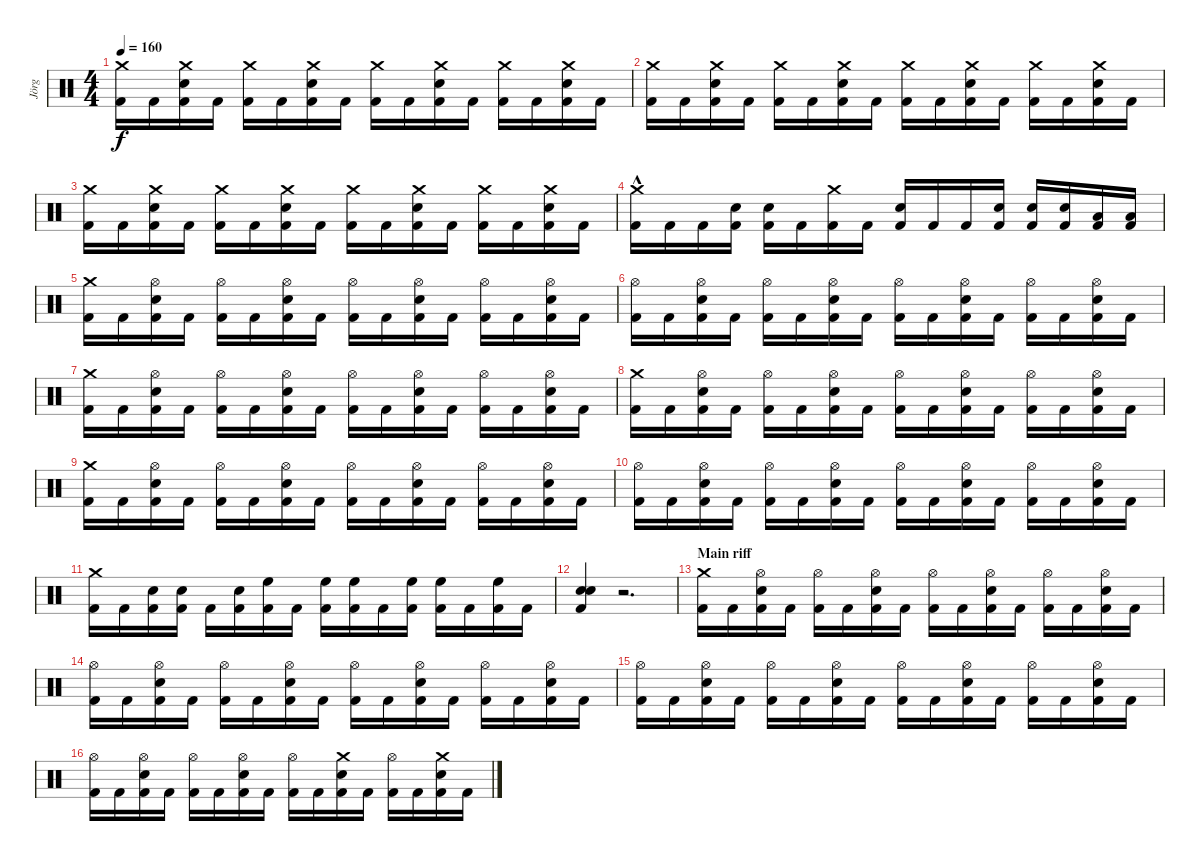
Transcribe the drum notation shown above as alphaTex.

\track ("Jörg" "Jörg") {instrument percussion}
\staff {score}
\articulation defaults
\ts (4 4)
\tempo 160
\clef neutral
\ks c
("Crash medium (hit)" "Kick (hit) 2").16{dy f} "Kick (hit) 2".16 ("Crash medium (hit)" "Snare (hit) 2" "Kick (hit) 2").16 "Kick (hit) 2".16 ("Crash medium (hit)" "Kick (hit) 2").16 "Kick (hit) 2".16 ("Crash medium (hit)" "Snare (hit) 2" "Kick (hit) 2").16 "Kick (hit) 2".16 ("Crash medium (hit)" "Kick (hit) 2").16 "Kick (hit) 2".16 ("Crash medium (hit)" "Snare (hit) 2" "Kick (hit) 2").16 "Kick (hit) 2".16 ("Crash medium (hit)" "Kick (hit) 2").16 "Kick (hit) 2".16 ("Crash medium (hit)" "Snare (hit) 2" "Kick (hit) 2").16 "Kick (hit) 2".16 |
("Crash medium (hit)" "Kick (hit) 2").16 "Kick (hit) 2".16 ("Crash medium (hit)" "Snare (hit) 2" "Kick (hit) 2").16 "Kick (hit) 2".16 ("Crash medium (hit)" "Kick (hit) 2").16 "Kick (hit) 2".16 ("Crash medium (hit)" "Snare (hit) 2" "Kick (hit) 2").16 "Kick (hit) 2".16 ("Crash medium (hit)" "Kick (hit) 2").16 "Kick (hit) 2".16 ("Crash medium (hit)" "Snare (hit) 2" "Kick (hit) 2").16 "Kick (hit) 2".16 ("Crash medium (hit)" "Kick (hit) 2").16 "Kick (hit) 2".16 ("Crash medium (hit)" "Snare (hit) 2" "Kick (hit) 2").16 "Kick (hit) 2".16 |
("Crash medium (hit)" "Kick (hit) 2").16 "Kick (hit) 2".16 ("Crash medium (hit)" "Snare (hit) 2" "Kick (hit) 2").16 "Kick (hit) 2".16 ("Crash medium (hit)" "Kick (hit) 2").16 "Kick (hit) 2".16 ("Crash medium (hit)" "Snare (hit) 2" "Kick (hit) 2").16 "Kick (hit) 2".16 ("Crash medium (hit)" "Kick (hit) 2").16 "Kick (hit) 2".16 ("Crash medium (hit)" "Snare (hit) 2" "Kick (hit) 2").16 "Kick (hit) 2".16 ("Crash medium (hit)" "Kick (hit) 2").16 "Kick (hit) 2".16 ("Crash medium (hit)" "Snare (hit) 2" "Kick (hit) 2").16 "Kick (hit) 2".16 |
("Crash medium (hit)"{hac} "Kick (hit) 2").16 "Kick (hit) 2".16 "Kick (hit) 2".16 ("Snare (hit) 2" "Kick (hit) 2").16 ("Snare (hit) 2" "Kick (hit) 2").16 "Kick (hit) 2".16 ("Crash medium (hit)" "Kick (hit) 2").16 "Kick (hit) 2".16 ("Snare (hit) 2" "Kick (hit) 2").16 "Kick (hit) 2".16 "Kick (hit) 2".16 ("Snare (hit) 2" "Kick (hit) 2").16 ("Snare (hit) 2" "Kick (hit) 2").16 ("Snare (hit) 2" "Kick (hit) 2").16 ("Low Tom (hit)" "Kick (hit) 2").16 ("Low Tom (hit)" "Kick (hit) 2").16 |
("Crash medium (hit)" "Kick (hit) 2").16 "Kick (hit) 2".16 ("Hi-Hat (open)" "Snare (hit) 2" "Kick (hit) 2").16 "Kick (hit) 2".16 ("Hi-Hat (open)" "Kick (hit) 2").16 "Kick (hit) 2".16 ("Hi-Hat (open)" "Snare (hit) 2" "Kick (hit) 2").16 "Kick (hit) 2".16 ("Hi-Hat (open)" "Kick (hit) 2").16 "Kick (hit) 2".16 ("Hi-Hat (open)" "Snare (hit) 2" "Kick (hit) 2").16 "Kick (hit) 2".16 ("Hi-Hat (open)" "Kick (hit) 2").16 "Kick (hit) 2".16 ("Hi-Hat (open)" "Snare (hit) 2" "Kick (hit) 2").16 "Kick (hit) 2".16 |
("Hi-Hat (open)" "Kick (hit) 2").16 "Kick (hit) 2".16 ("Hi-Hat (open)" "Snare (hit) 2" "Kick (hit) 2").16 "Kick (hit) 2".16 ("Hi-Hat (open)" "Kick (hit) 2").16 "Kick (hit) 2".16 ("Hi-Hat (open)" "Snare (hit) 2" "Kick (hit) 2").16 "Kick (hit) 2".16 ("Hi-Hat (open)" "Kick (hit) 2").16 "Kick (hit) 2".16 ("Hi-Hat (open)" "Snare (hit) 2" "Kick (hit) 2").16 "Kick (hit) 2".16 ("Hi-Hat (open)" "Kick (hit) 2").16 "Kick (hit) 2".16 ("Hi-Hat (open)" "Snare (hit) 2" "Kick (hit) 2").16 "Kick (hit) 2".16 |
("Crash medium (hit)" "Kick (hit) 2").16 "Kick (hit) 2".16 ("Hi-Hat (open)" "Snare (hit) 2" "Kick (hit) 2").16 "Kick (hit) 2".16 ("Hi-Hat (open)" "Kick (hit) 2").16 "Kick (hit) 2".16 ("Hi-Hat (open)" "Snare (hit) 2" "Kick (hit) 2").16 "Kick (hit) 2".16 ("Hi-Hat (open)" "Kick (hit) 2").16 "Kick (hit) 2".16 ("Hi-Hat (open)" "Snare (hit) 2" "Kick (hit) 2").16 "Kick (hit) 2".16 ("Hi-Hat (open)" "Kick (hit) 2").16 "Kick (hit) 2".16 ("Hi-Hat (open)" "Snare (hit) 2" "Kick (hit) 2").16 "Kick (hit) 2".16 |
("Crash medium (hit)" "Kick (hit) 2").16 "Kick (hit) 2".16 ("Hi-Hat (open)" "Snare (hit) 2" "Kick (hit) 2").16 "Kick (hit) 2".16 ("Hi-Hat (open)" "Kick (hit) 2").16 "Kick (hit) 2".16 ("Hi-Hat (open)" "Snare (hit) 2" "Kick (hit) 2").16 "Kick (hit) 2".16 ("Hi-Hat (open)" "Kick (hit) 2").16 "Kick (hit) 2".16 ("Hi-Hat (open)" "Snare (hit) 2" "Kick (hit) 2").16 "Kick (hit) 2".16 ("Hi-Hat (open)" "Kick (hit) 2").16 "Kick (hit) 2".16 ("Hi-Hat (open)" "Snare (hit) 2" "Kick (hit) 2").16 "Kick (hit) 2".16 |
("Crash medium (hit)" "Kick (hit) 2").16 "Kick (hit) 2".16 ("Hi-Hat (open)" "Snare (hit) 2" "Kick (hit) 2").16 "Kick (hit) 2".16 ("Hi-Hat (open)" "Kick (hit) 2").16 "Kick (hit) 2".16 ("Hi-Hat (open)" "Snare (hit) 2" "Kick (hit) 2").16 "Kick (hit) 2".16 ("Hi-Hat (open)" "Kick (hit) 2").16 "Kick (hit) 2".16 ("Hi-Hat (open)" "Snare (hit) 2" "Kick (hit) 2").16 "Kick (hit) 2".16 ("Hi-Hat (open)" "Kick (hit) 2").16 "Kick (hit) 2".16 ("Hi-Hat (open)" "Snare (hit) 2" "Kick (hit) 2").16 "Kick (hit) 2".16 |
("Hi-Hat (open)" "Kick (hit) 2").16 "Kick (hit) 2".16 ("Hi-Hat (open)" "Snare (hit) 2" "Kick (hit) 2").16 "Kick (hit) 2".16 ("Hi-Hat (open)" "Kick (hit) 2").16 "Kick (hit) 2".16 ("Hi-Hat (open)" "Snare (hit) 2" "Kick (hit) 2").16 "Kick (hit) 2".16 ("Hi-Hat (open)" "Kick (hit) 2").16 "Kick (hit) 2".16 ("Hi-Hat (open)" "Snare (hit) 2" "Kick (hit) 2").16 "Kick (hit) 2".16 ("Hi-Hat (open)" "Kick (hit) 2").16 "Kick (hit) 2".16 ("Hi-Hat (open)" "Snare (hit) 2" "Kick (hit) 2").16 "Kick (hit) 2".16 |
("Crash medium (hit)" "Kick (hit) 2").16 "Kick (hit) 2".16 ("Snare (hit) 2" "Kick (hit) 2").16 ("Snare (hit) 2" "Kick (hit) 2").16 "Kick (hit) 2".16 ("Snare (hit) 2" "Kick (hit) 2").16 ("High Floor Tom (hit)" "Kick (hit) 2").16 "Kick (hit) 2".16 ("High Floor Tom (hit)" "Kick (hit) 2").16 ("High Floor Tom (hit)" "Kick (hit) 2").16 "Kick (hit) 2".16 ("High Floor Tom (hit)" "Kick (hit) 2").16 ("High Floor Tom (hit)" "Kick (hit) 2").16 "Kick (hit) 2".16 ("High Floor Tom (hit)" "Kick (hit) 2").16 "Kick (hit) 2".16 |
("Snare (hit) 2" "Snare (hit) 2" "Kick (hit) 2").4 r.2{d} |
\section ("" "Main riff")
("Kick (hit) 2" "Crash medium (hit)").16 "Kick (hit) 2".16 ("Kick (hit) 2" "Snare (hit) 2" "Hi-Hat (open)").16 "Kick (hit) 2".16 ("Kick (hit) 2" "Hi-Hat (open)").16 "Kick (hit) 2".16 ("Kick (hit) 2" "Snare (hit) 2" "Hi-Hat (open)").16 "Kick (hit) 2".16 ("Kick (hit) 2" "Hi-Hat (open)").16 "Kick (hit) 2".16 ("Kick (hit) 2" "Snare (hit) 2" "Hi-Hat (open)").16 "Kick (hit) 2".16 ("Kick (hit) 2" "Hi-Hat (open)").16 "Kick (hit) 2".16 ("Kick (hit) 2" "Snare (hit) 2" "Hi-Hat (open)").16 "Kick (hit) 2".16 |
("Hi-Hat (open)" "Kick (hit) 2").16 "Kick (hit) 2".16 ("Kick (hit) 2" "Snare (hit) 2" "Hi-Hat (open)").16 "Kick (hit) 2".16 ("Kick (hit) 2" "Hi-Hat (open)").16 "Kick (hit) 2".16 ("Kick (hit) 2" "Snare (hit) 2" "Hi-Hat (open)").16 "Kick (hit) 2".16 ("Kick (hit) 2" "Hi-Hat (open)").16 "Kick (hit) 2".16 ("Kick (hit) 2" "Snare (hit) 2" "Hi-Hat (open)").16 "Kick (hit) 2".16 ("Kick (hit) 2" "Hi-Hat (open)").16 "Kick (hit) 2".16 ("Kick (hit) 2" "Snare (hit) 2" "Hi-Hat (open)").16 "Kick (hit) 2".16 |
("Hi-Hat (open)" "Kick (hit) 2").16 "Kick (hit) 2".16 ("Kick (hit) 2" "Snare (hit) 2" "Hi-Hat (open)").16 "Kick (hit) 2".16 ("Kick (hit) 2" "Hi-Hat (open)").16 "Kick (hit) 2".16 ("Kick (hit) 2" "Snare (hit) 2" "Hi-Hat (open)").16 "Kick (hit) 2".16 ("Kick (hit) 2" "Hi-Hat (open)").16 "Kick (hit) 2".16 ("Kick (hit) 2" "Snare (hit) 2" "Hi-Hat (open)").16 "Kick (hit) 2".16 ("Kick (hit) 2" "Hi-Hat (open)").16 "Kick (hit) 2".16 ("Kick (hit) 2" "Snare (hit) 2" "Hi-Hat (open)").16 "Kick (hit) 2".16 |
("Hi-Hat (open)" "Kick (hit) 2").16 "Kick (hit) 2".16 ("Kick (hit) 2" "Snare (hit) 2" "Hi-Hat (open)").16 "Kick (hit) 2".16 ("Kick (hit) 2" "Hi-Hat (open)").16 "Kick (hit) 2".16 ("Kick (hit) 2" "Snare (hit) 2" "Hi-Hat (open)").16 "Kick (hit) 2".16 ("Kick (hit) 2" "Hi-Hat (open)").16 "Kick (hit) 2".16 ("Crash medium (hit)" "Kick (hit) 2" "Snare (hit) 2").16 "Kick (hit) 2".16 ("Kick (hit) 2" "Hi-Hat (open)").16 "Kick (hit) 2".16 ("Crash medium (hit)" "Kick (hit) 2" "Snare (hit) 2").16 "Kick (hit) 2".16
